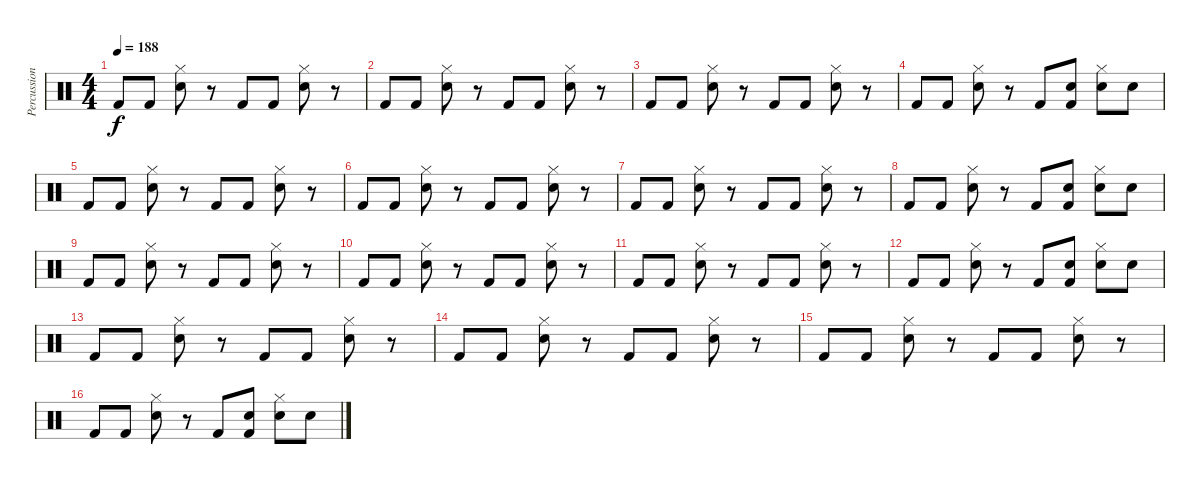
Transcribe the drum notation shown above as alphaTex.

\track ("Percussion" "Percussion") {instrument percussion}
\staff {score}
\articulation defaults
\ts (4 4)
\tempo 188
\clef neutral
\ks c "Kick (hit) 2".8{dy f} "Kick (hit) 2".8
("Hi-Hat (closed)" "Snare (hit) 2").8 r.8 "Kick (hit) 2".8 "Kick (hit) 2".8 ("Hi-Hat (closed)" "Snare (hit) 2").8 r.8 |
"Kick (hit) 2".8 "Kick (hit) 2".8 ("Hi-Hat (closed)" "Snare (hit) 2").8 r.8 "Kick (hit) 2".8 "Kick (hit) 2".8 ("Hi-Hat (closed)" "Snare (hit) 2").8 r.8 |
"Kick (hit) 2".8 "Kick (hit) 2".8 ("Hi-Hat (closed)" "Snare (hit) 2").8 r.8 "Kick (hit) 2".8 "Kick (hit) 2".8 ("Hi-Hat (closed)" "Snare (hit) 2").8 r.8 |
"Kick (hit) 2".8 "Kick (hit) 2".8 ("Hi-Hat (closed)" "Snare (hit) 2").8 r.8 "Kick (hit) 2".8 ("Snare (hit) 2" "Kick (hit) 2").8 ("Hi-Hat (closed)" "Snare (hit) 2").8 "Snare (hit) 2".8 |
"Kick (hit) 2".8 "Kick (hit) 2".8 ("Hi-Hat (closed)" "Snare (hit) 2").8 r.8 "Kick (hit) 2".8 "Kick (hit) 2".8 ("Hi-Hat (closed)" "Snare (hit) 2").8 r.8 |
"Kick (hit) 2".8 "Kick (hit) 2".8 ("Hi-Hat (closed)" "Snare (hit) 2").8 r.8 "Kick (hit) 2".8 "Kick (hit) 2".8 ("Hi-Hat (closed)" "Snare (hit) 2").8 r.8 |
"Kick (hit) 2".8 "Kick (hit) 2".8 ("Hi-Hat (closed)" "Snare (hit) 2").8 r.8 "Kick (hit) 2".8 "Kick (hit) 2".8 ("Hi-Hat (closed)" "Snare (hit) 2").8 r.8 |
"Kick (hit) 2".8 "Kick (hit) 2".8 ("Hi-Hat (closed)" "Snare (hit) 2").8 r.8 "Kick (hit) 2".8 ("Snare (hit) 2" "Kick (hit) 2").8 ("Hi-Hat (closed)" "Snare (hit) 2").8 "Snare (hit) 2".8 |
"Kick (hit) 2".8 "Kick (hit) 2".8 ("Hi-Hat (closed)" "Snare (hit) 2").8 r.8 "Kick (hit) 2".8 "Kick (hit) 2".8 ("Hi-Hat (closed)" "Snare (hit) 2").8 r.8 |
"Kick (hit) 2".8 "Kick (hit) 2".8 ("Hi-Hat (closed)" "Snare (hit) 2").8 r.8 "Kick (hit) 2".8 "Kick (hit) 2".8 ("Hi-Hat (closed)" "Snare (hit) 2").8 r.8 |
"Kick (hit) 2".8 "Kick (hit) 2".8 ("Hi-Hat (closed)" "Snare (hit) 2").8 r.8 "Kick (hit) 2".8 "Kick (hit) 2".8 ("Hi-Hat (closed)" "Snare (hit) 2").8 r.8 |
"Kick (hit) 2".8 "Kick (hit) 2".8 ("Hi-Hat (closed)" "Snare (hit) 2").8 r.8 "Kick (hit) 2".8 ("Snare (hit) 2" "Kick (hit) 2").8 ("Hi-Hat (closed)" "Snare (hit) 2").8 "Snare (hit) 2".8 |
"Kick (hit) 2".8 "Kick (hit) 2".8 ("Hi-Hat (closed)" "Snare (hit) 2").8 r.8 "Kick (hit) 2".8 "Kick (hit) 2".8 ("Hi-Hat (closed)" "Snare (hit) 2").8 r.8 |
"Kick (hit) 2".8 "Kick (hit) 2".8 ("Hi-Hat (closed)" "Snare (hit) 2").8 r.8 "Kick (hit) 2".8 "Kick (hit) 2".8 ("Hi-Hat (closed)" "Snare (hit) 2").8 r.8 |
"Kick (hit) 2".8 "Kick (hit) 2".8 ("Hi-Hat (closed)" "Snare (hit) 2").8 r.8 "Kick (hit) 2".8 "Kick (hit) 2".8 ("Hi-Hat (closed)" "Snare (hit) 2").8 r.8 |
"Kick (hit) 2".8 "Kick (hit) 2".8 ("Hi-Hat (closed)" "Snare (hit) 2").8 r.8 "Kick (hit) 2".8 ("Snare (hit) 2" "Kick (hit) 2").8 ("Hi-Hat (closed)" "Snare (hit) 2").8 "Snare (hit) 2".8
